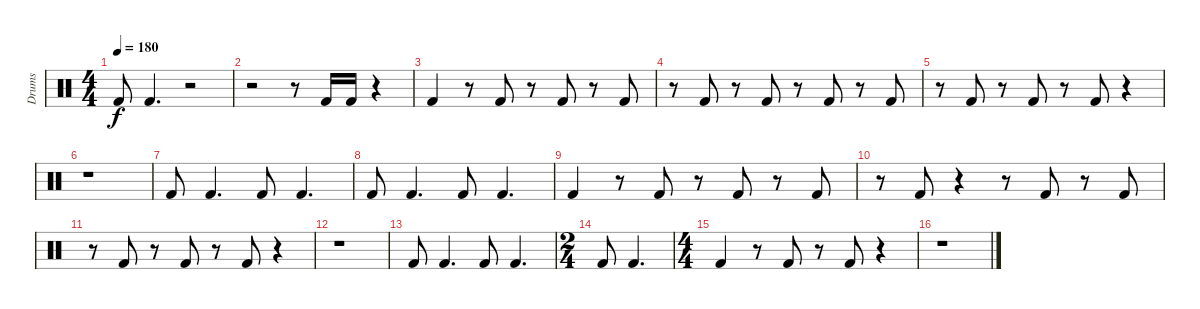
\track ("Drums" "Drums") {instrument percussion}
\staff {score}
\articulation defaults
\ts (4 4)
\tempo 180
\clef neutral
\ks c "Kick (hit) 2".8{dy f} "Kick (hit) 2".4{d}
r.2 |
r.2 r.8 "Kick (hit) 2".16 "Kick (hit) 2".16 r.4 |
"Kick (hit) 2".4 r.8 "Kick (hit) 2".8 r.8 "Kick (hit) 2".8 r.8 "Kick (hit) 2".8 |
r.8 "Kick (hit) 2".8 r.8 "Kick (hit) 2".8 r.8 "Kick (hit) 2".8 r.8 "Kick (hit) 2".8 |
r.8 "Kick (hit) 2".8 r.8 "Kick (hit) 2".8 r.8 "Kick (hit) 2".8 r.4 |
r.1 |
"Kick (hit) 2".8 "Kick (hit) 2".4{d} "Kick (hit) 2".8 "Kick (hit) 2".4{d} |
"Kick (hit) 2".8 "Kick (hit) 2".4{d} "Kick (hit) 2".8 "Kick (hit) 2".4{d} |
"Kick (hit) 2".4 r.8 "Kick (hit) 2".8 r.8 "Kick (hit) 2".8 r.8 "Kick (hit) 2".8 |
r.8 "Kick (hit) 2".8 r.4 r.8 "Kick (hit) 2".8 r.8 "Kick (hit) 2".8 |
r.8 "Kick (hit) 2".8 r.8 "Kick (hit) 2".8 r.8 "Kick (hit) 2".8 r.4 |
r.1 |
"Kick (hit) 2".8 "Kick (hit) 2".4{d} "Kick (hit) 2".8 "Kick (hit) 2".4{d} |
\ts (2 4)
"Kick (hit) 2".8 "Kick (hit) 2".4{d} |
\ts (4 4)
"Kick (hit) 2".4 r.8 "Kick (hit) 2".8 r.8 "Kick (hit) 2".8 r.4 |
r.1
